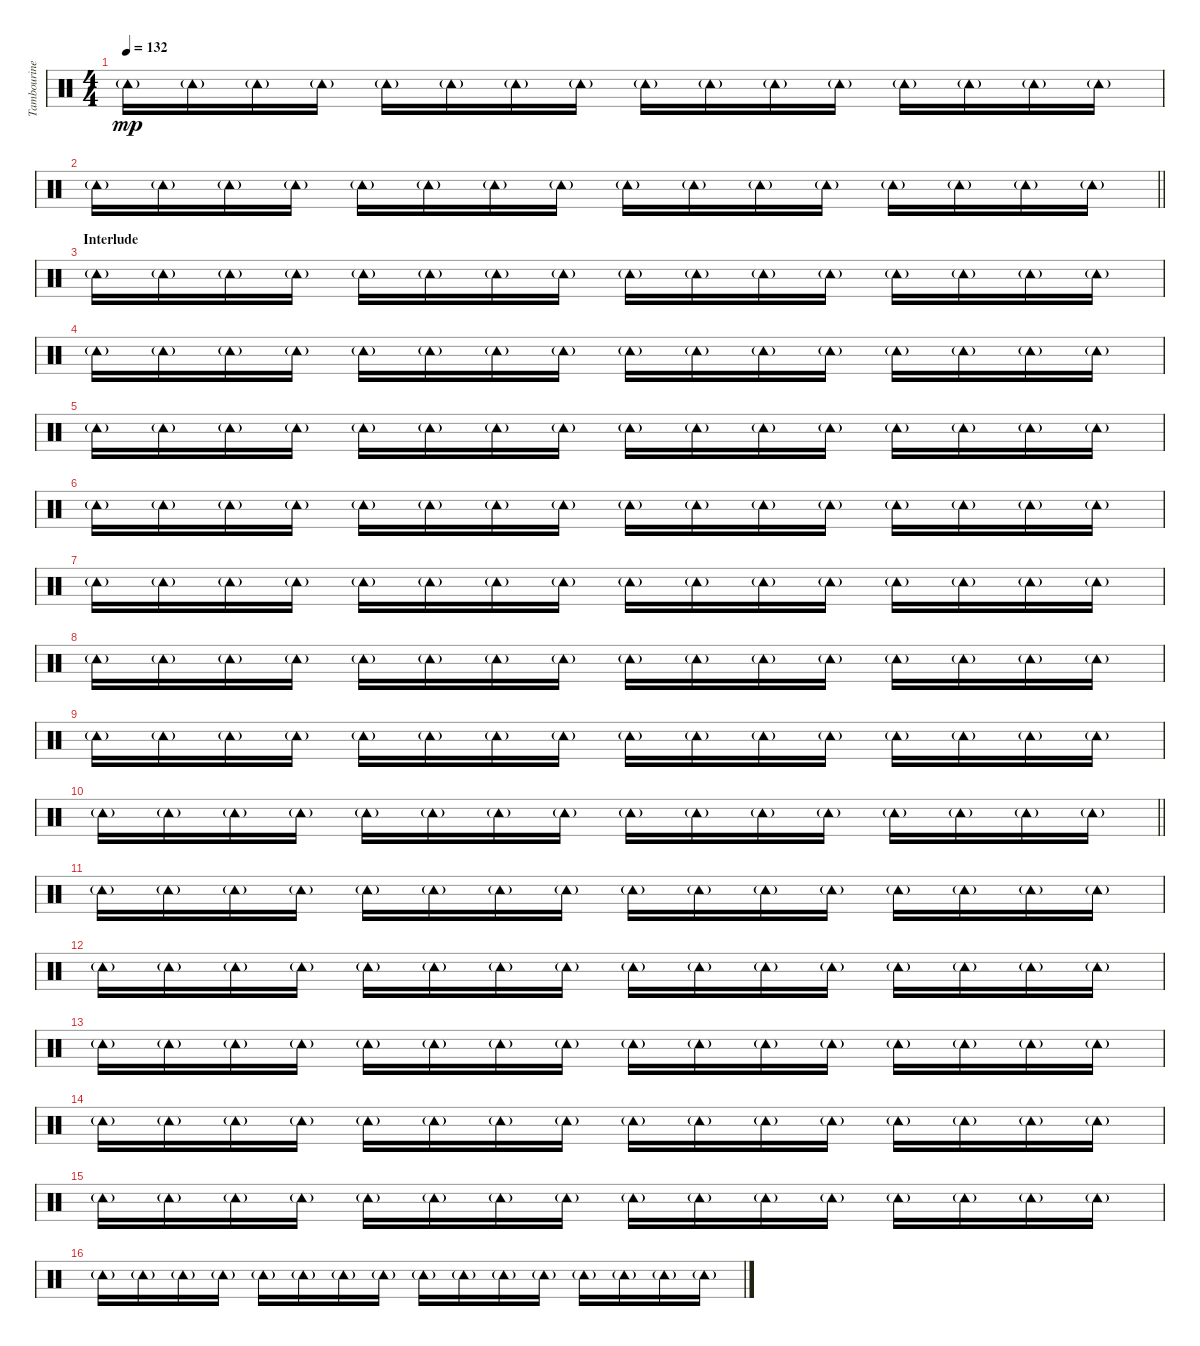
\track ("Tambourine" "Tambourine") {instrument percussion}
\staff {score}
\articulation defaults
\ts (4 4)
\tempo 132
\clef neutral
\ks c "Tambourine (hit)"{g}.16{dy mp} "Tambourine (hit)"{g}.16 "Tambourine (hit)"{g}.16 "Tambourine (hit)"{g}.16 "Tambourine (hit)"{g}.16 "Tambourine (hit)"{g}.16 "Tambourine (hit)"{g}.16 "Tambourine (hit)"{g}.16 "Tambourine (hit)"{g}.16 "Tambourine (hit)"{g}.16 "Tambourine (hit)"{g}.16 "Tambourine (hit)"{g}.16 "Tambourine (hit)"{g}.16 "Tambourine (hit)"{g}.16 "Tambourine (hit)"{g}.16 "Tambourine (hit)"{g}.16
|
\barLineRight lightlight "Tambourine (hit)"{g}.16 "Tambourine (hit)"{g}.16 "Tambourine (hit)"{g}.16 "Tambourine (hit)"{g}.16 "Tambourine (hit)"{g}.16 "Tambourine (hit)"{g}.16 "Tambourine (hit)"{g}.16 "Tambourine (hit)"{g}.16 "Tambourine (hit)"{g}.16 "Tambourine (hit)"{g}.16 "Tambourine (hit)"{g}.16 "Tambourine (hit)"{g}.16 "Tambourine (hit)"{g}.16 "Tambourine (hit)"{g}.16 "Tambourine (hit)"{g}.16 "Tambourine (hit)"{g}.16
|
\section ("" "Interlude")
"Tambourine (hit)"{g}.16 "Tambourine (hit)"{g}.16 "Tambourine (hit)"{g}.16 "Tambourine (hit)"{g}.16 "Tambourine (hit)"{g}.16 "Tambourine (hit)"{g}.16 "Tambourine (hit)"{g}.16 "Tambourine (hit)"{g}.16 "Tambourine (hit)"{g}.16 "Tambourine (hit)"{g}.16 "Tambourine (hit)"{g}.16 "Tambourine (hit)"{g}.16 "Tambourine (hit)"{g}.16 "Tambourine (hit)"{g}.16 "Tambourine (hit)"{g}.16 "Tambourine (hit)"{g}.16 |
"Tambourine (hit)"{g}.16 "Tambourine (hit)"{g}.16 "Tambourine (hit)"{g}.16 "Tambourine (hit)"{g}.16 "Tambourine (hit)"{g}.16 "Tambourine (hit)"{g}.16 "Tambourine (hit)"{g}.16 "Tambourine (hit)"{g}.16 "Tambourine (hit)"{g}.16 "Tambourine (hit)"{g}.16 "Tambourine (hit)"{g}.16 "Tambourine (hit)"{g}.16 "Tambourine (hit)"{g}.16 "Tambourine (hit)"{g}.16 "Tambourine (hit)"{g}.16 "Tambourine (hit)"{g}.16 |
"Tambourine (hit)"{g}.16 "Tambourine (hit)"{g}.16 "Tambourine (hit)"{g}.16 "Tambourine (hit)"{g}.16 "Tambourine (hit)"{g}.16 "Tambourine (hit)"{g}.16 "Tambourine (hit)"{g}.16 "Tambourine (hit)"{g}.16 "Tambourine (hit)"{g}.16 "Tambourine (hit)"{g}.16 "Tambourine (hit)"{g}.16 "Tambourine (hit)"{g}.16 "Tambourine (hit)"{g}.16 "Tambourine (hit)"{g}.16 "Tambourine (hit)"{g}.16 "Tambourine (hit)"{g}.16 |
"Tambourine (hit)"{g}.16 "Tambourine (hit)"{g}.16 "Tambourine (hit)"{g}.16 "Tambourine (hit)"{g}.16 "Tambourine (hit)"{g}.16 "Tambourine (hit)"{g}.16 "Tambourine (hit)"{g}.16 "Tambourine (hit)"{g}.16 "Tambourine (hit)"{g}.16 "Tambourine (hit)"{g}.16 "Tambourine (hit)"{g}.16 "Tambourine (hit)"{g}.16 "Tambourine (hit)"{g}.16 "Tambourine (hit)"{g}.16 "Tambourine (hit)"{g}.16 "Tambourine (hit)"{g}.16 |
"Tambourine (hit)"{g}.16 "Tambourine (hit)"{g}.16 "Tambourine (hit)"{g}.16 "Tambourine (hit)"{g}.16 "Tambourine (hit)"{g}.16 "Tambourine (hit)"{g}.16 "Tambourine (hit)"{g}.16 "Tambourine (hit)"{g}.16 "Tambourine (hit)"{g}.16 "Tambourine (hit)"{g}.16 "Tambourine (hit)"{g}.16 "Tambourine (hit)"{g}.16 "Tambourine (hit)"{g}.16 "Tambourine (hit)"{g}.16 "Tambourine (hit)"{g}.16 "Tambourine (hit)"{g}.16 |
"Tambourine (hit)"{g}.16 "Tambourine (hit)"{g}.16 "Tambourine (hit)"{g}.16 "Tambourine (hit)"{g}.16 "Tambourine (hit)"{g}.16 "Tambourine (hit)"{g}.16 "Tambourine (hit)"{g}.16 "Tambourine (hit)"{g}.16 "Tambourine (hit)"{g}.16 "Tambourine (hit)"{g}.16 "Tambourine (hit)"{g}.16 "Tambourine (hit)"{g}.16 "Tambourine (hit)"{g}.16 "Tambourine (hit)"{g}.16 "Tambourine (hit)"{g}.16 "Tambourine (hit)"{g}.16 |
"Tambourine (hit)"{g}.16 "Tambourine (hit)"{g}.16 "Tambourine (hit)"{g}.16 "Tambourine (hit)"{g}.16 "Tambourine (hit)"{g}.16 "Tambourine (hit)"{g}.16 "Tambourine (hit)"{g}.16 "Tambourine (hit)"{g}.16 "Tambourine (hit)"{g}.16 "Tambourine (hit)"{g}.16 "Tambourine (hit)"{g}.16 "Tambourine (hit)"{g}.16 "Tambourine (hit)"{g}.16 "Tambourine (hit)"{g}.16 "Tambourine (hit)"{g}.16 "Tambourine (hit)"{g}.16 |
\barLineRight lightlight "Tambourine (hit)"{g}.16 "Tambourine (hit)"{g}.16 "Tambourine (hit)"{g}.16 "Tambourine (hit)"{g}.16 "Tambourine (hit)"{g}.16 "Tambourine (hit)"{g}.16 "Tambourine (hit)"{g}.16 "Tambourine (hit)"{g}.16 "Tambourine (hit)"{g}.16 "Tambourine (hit)"{g}.16 "Tambourine (hit)"{g}.16 "Tambourine (hit)"{g}.16 "Tambourine (hit)"{g}.16 "Tambourine (hit)"{g}.16 "Tambourine (hit)"{g}.16 "Tambourine (hit)"{g}.16
|
"Tambourine (hit)"{g}.16 "Tambourine (hit)"{g}.16 "Tambourine (hit)"{g}.16 "Tambourine (hit)"{g}.16 "Tambourine (hit)"{g}.16 "Tambourine (hit)"{g}.16 "Tambourine (hit)"{g}.16 "Tambourine (hit)"{g}.16 "Tambourine (hit)"{g}.16 "Tambourine (hit)"{g}.16 "Tambourine (hit)"{g}.16 "Tambourine (hit)"{g}.16 "Tambourine (hit)"{g}.16 "Tambourine (hit)"{g}.16 "Tambourine (hit)"{g}.16 "Tambourine (hit)"{g}.16 |
"Tambourine (hit)"{g}.16 "Tambourine (hit)"{g}.16 "Tambourine (hit)"{g}.16 "Tambourine (hit)"{g}.16 "Tambourine (hit)"{g}.16 "Tambourine (hit)"{g}.16 "Tambourine (hit)"{g}.16 "Tambourine (hit)"{g}.16 "Tambourine (hit)"{g}.16 "Tambourine (hit)"{g}.16 "Tambourine (hit)"{g}.16 "Tambourine (hit)"{g}.16 "Tambourine (hit)"{g}.16 "Tambourine (hit)"{g}.16 "Tambourine (hit)"{g}.16 "Tambourine (hit)"{g}.16 |
"Tambourine (hit)"{g}.16 "Tambourine (hit)"{g}.16 "Tambourine (hit)"{g}.16 "Tambourine (hit)"{g}.16 "Tambourine (hit)"{g}.16 "Tambourine (hit)"{g}.16 "Tambourine (hit)"{g}.16 "Tambourine (hit)"{g}.16 "Tambourine (hit)"{g}.16 "Tambourine (hit)"{g}.16 "Tambourine (hit)"{g}.16 "Tambourine (hit)"{g}.16 "Tambourine (hit)"{g}.16 "Tambourine (hit)"{g}.16 "Tambourine (hit)"{g}.16 "Tambourine (hit)"{g}.16 |
"Tambourine (hit)"{g}.16 "Tambourine (hit)"{g}.16 "Tambourine (hit)"{g}.16 "Tambourine (hit)"{g}.16 "Tambourine (hit)"{g}.16 "Tambourine (hit)"{g}.16 "Tambourine (hit)"{g}.16 "Tambourine (hit)"{g}.16 "Tambourine (hit)"{g}.16 "Tambourine (hit)"{g}.16 "Tambourine (hit)"{g}.16 "Tambourine (hit)"{g}.16 "Tambourine (hit)"{g}.16 "Tambourine (hit)"{g}.16 "Tambourine (hit)"{g}.16 "Tambourine (hit)"{g}.16 |
"Tambourine (hit)"{g}.16 "Tambourine (hit)"{g}.16 "Tambourine (hit)"{g}.16 "Tambourine (hit)"{g}.16 "Tambourine (hit)"{g}.16 "Tambourine (hit)"{g}.16 "Tambourine (hit)"{g}.16 "Tambourine (hit)"{g}.16 "Tambourine (hit)"{g}.16 "Tambourine (hit)"{g}.16 "Tambourine (hit)"{g}.16 "Tambourine (hit)"{g}.16 "Tambourine (hit)"{g}.16 "Tambourine (hit)"{g}.16 "Tambourine (hit)"{g}.16 "Tambourine (hit)"{g}.16 |
"Tambourine (hit)"{g}.16 "Tambourine (hit)"{g}.16 "Tambourine (hit)"{g}.16 "Tambourine (hit)"{g}.16 "Tambourine (hit)"{g}.16 "Tambourine (hit)"{g}.16 "Tambourine (hit)"{g}.16 "Tambourine (hit)"{g}.16 "Tambourine (hit)"{g}.16 "Tambourine (hit)"{g}.16 "Tambourine (hit)"{g}.16 "Tambourine (hit)"{g}.16 "Tambourine (hit)"{g}.16 "Tambourine (hit)"{g}.16 "Tambourine (hit)"{g}.16 "Tambourine (hit)"{g}.16
